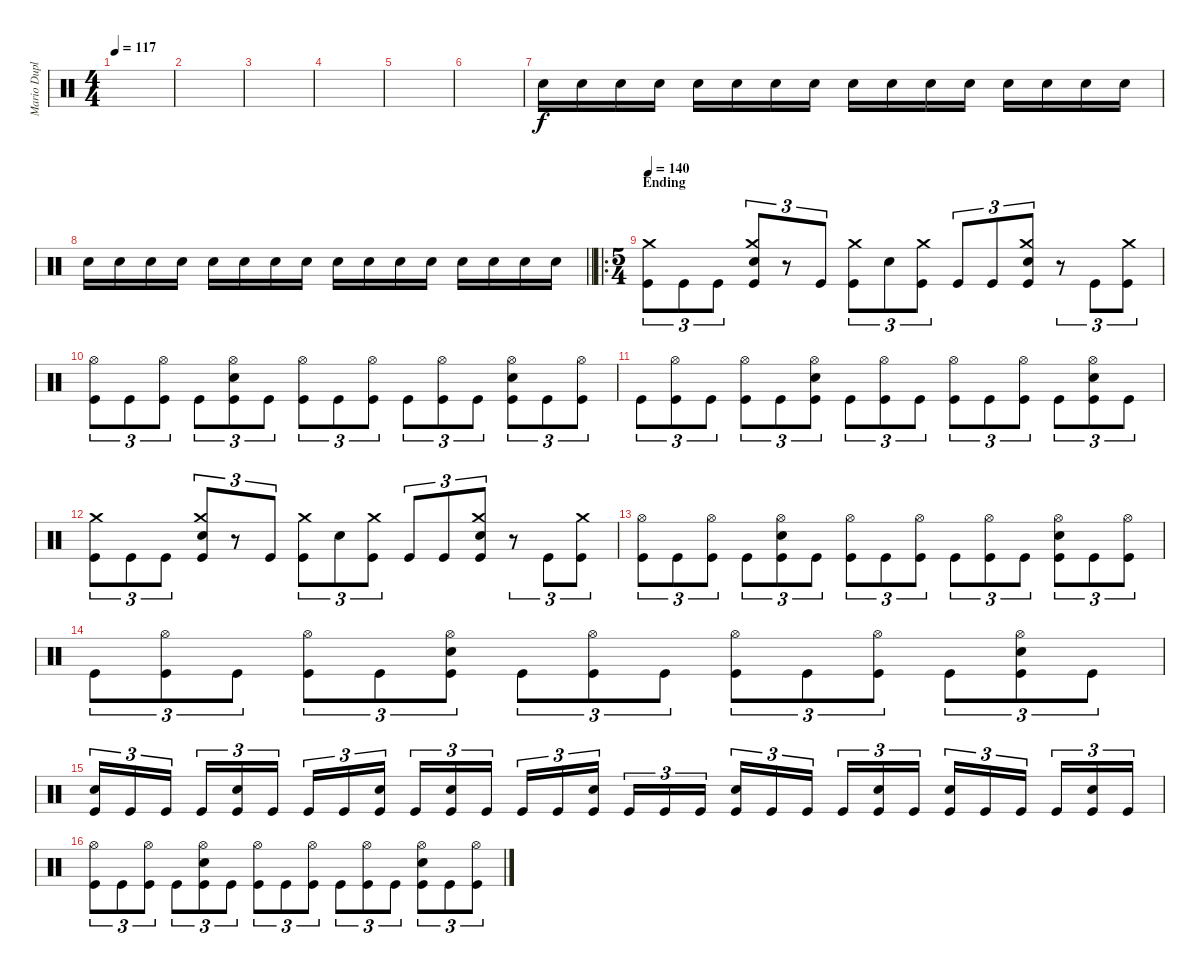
\track ("Mario Duplantier" "Mario Dupl") {instrument percussion}
\staff {score}
\articulation defaults
\ts (4 4)
\tempo 117
\clef neutral
\ks c
|
|
|
|
|
|
"Electric Snare (hit)".16{volume 16} "Electric Snare (hit)".16 "Electric Snare (hit)".16 "Electric Snare (hit)".16 "Electric Snare (hit)".16 "Electric Snare (hit)".16 "Electric Snare (hit)".16 "Electric Snare (hit)".16 "Electric Snare (hit)".16 "Electric Snare (hit)".16 "Electric Snare (hit)".16 "Electric Snare (hit)".16 "Electric Snare (hit)".16 "Electric Snare (hit)".16 "Electric Snare (hit)".16 "Electric Snare (hit)".16 |
\barLineRight lightlight "Electric Snare (hit)".16 "Electric Snare (hit)".16 "Electric Snare (hit)".16 "Electric Snare (hit)".16 "Electric Snare (hit)".16 "Electric Snare (hit)".16 "Electric Snare (hit)".16 "Electric Snare (hit)".16 "Electric Snare (hit)".16 "Electric Snare (hit)".16 "Electric Snare (hit)".16 "Electric Snare (hit)".16 "Electric Snare (hit)".16 "Electric Snare (hit)".16 "Electric Snare (hit)".16 "Electric Snare (hit)".16
|
\ro
\ts (5 4)
\section ("" "Ending")
\tempo 140
("Crash medium (hit)" "Kick (hit)").8{tu (3 2)} "Kick (hit)".8{tu (3 2)} "Kick (hit)".8{tu (3 2)} ("Crash medium (hit)" "Electric Snare (hit)" "Kick (hit)").8{tu (3 2)} r.8{tu (3 2)} "Kick (hit)".8{tu (3 2)} ("Crash medium (hit)" "Kick (hit)").8{tu (3 2)} "Electric Snare (hit)".8{tu (3 2)} ("Crash medium (hit)" "Kick (hit)").8{tu (3 2)} "Kick (hit)".8{tu (3 2)} "Kick (hit)".8{tu (3 2)} ("Crash medium (hit)" "Electric Snare (hit)" "Kick (hit)").8{tu (3 2)} r.8{tu (3 2)} "Kick (hit)".8{tu (3 2)} ("Crash medium (hit)" "Kick (hit)").8{tu (3 2)} |
("Hi-Hat (open)" "Kick (hit)").8{tu (3 2)} "Kick (hit)".8{tu (3 2)} ("Hi-Hat (open)" "Kick (hit)").8{tu (3 2)} "Kick (hit)".8{tu (3 2)} ("Hi-Hat (open)" "Electric Snare (hit)" "Kick (hit)").8{tu (3 2)} "Kick (hit)".8{tu (3 2)} ("Hi-Hat (open)" "Kick (hit)").8{tu (3 2)} "Kick (hit)".8{tu (3 2)} ("Hi-Hat (open)" "Kick (hit)").8{tu (3 2)} "Kick (hit)".8{tu (3 2)} ("Hi-Hat (open)" "Kick (hit)").8{tu (3 2)} "Kick (hit)".8{tu (3 2)} ("Hi-Hat (open)" "Electric Snare (hit)" "Kick (hit)").8{tu (3 2)} "Kick (hit)".8{tu (3 2)} ("Hi-Hat (open)" "Kick (hit)").8{tu (3 2)} |
"Kick (hit)".8{tu (3 2)} ("Hi-Hat (open)" "Kick (hit)").8{tu (3 2)} "Kick (hit)".8{tu (3 2)} ("Hi-Hat (open)" "Kick (hit)").8{tu (3 2)} "Kick (hit)".8{tu (3 2)} ("Hi-Hat (open)" "Electric Snare (hit)" "Kick (hit)").8{tu (3 2)} "Kick (hit)".8{tu (3 2)} ("Hi-Hat (open)" "Kick (hit)").8{tu (3 2)} "Kick (hit)".8{tu (3 2)} ("Hi-Hat (open)" "Kick (hit)").8{tu (3 2)} "Kick (hit)".8{tu (3 2)} ("Hi-Hat (open)" "Kick (hit)").8{tu (3 2)} "Kick (hit)".8{tu (3 2)} ("Hi-Hat (open)" "Electric Snare (hit)" "Kick (hit)").8{tu (3 2)} "Kick (hit)".8{tu (3 2)} |
("Crash medium (hit)" "Kick (hit)").8{tu (3 2)} "Kick (hit)".8{tu (3 2)} "Kick (hit)".8{tu (3 2)} ("Crash medium (hit)" "Electric Snare (hit)" "Kick (hit)").8{tu (3 2)} r.8{tu (3 2)} "Kick (hit)".8{tu (3 2)} ("Crash medium (hit)" "Kick (hit)").8{tu (3 2)} "Electric Snare (hit)".8{tu (3 2)} ("Crash medium (hit)" "Kick (hit)").8{tu (3 2)} "Kick (hit)".8{tu (3 2)} "Kick (hit)".8{tu (3 2)} ("Crash medium (hit)" "Electric Snare (hit)" "Kick (hit)").8{tu (3 2)} r.8{tu (3 2)} "Kick (hit)".8{tu (3 2)} ("Crash medium (hit)" "Kick (hit)").8{tu (3 2)} |
("Hi-Hat (open)" "Kick (hit)").8{tu (3 2)} "Kick (hit)".8{tu (3 2)} ("Hi-Hat (open)" "Kick (hit)").8{tu (3 2)} "Kick (hit)".8{tu (3 2)} ("Hi-Hat (open)" "Electric Snare (hit)" "Kick (hit)").8{tu (3 2)} "Kick (hit)".8{tu (3 2)} ("Hi-Hat (open)" "Kick (hit)").8{tu (3 2)} "Kick (hit)".8{tu (3 2)} ("Hi-Hat (open)" "Kick (hit)").8{tu (3 2)} "Kick (hit)".8{tu (3 2)} ("Hi-Hat (open)" "Kick (hit)").8{tu (3 2)} "Kick (hit)".8{tu (3 2)} ("Hi-Hat (open)" "Electric Snare (hit)" "Kick (hit)").8{tu (3 2)} "Kick (hit)".8{tu (3 2)} ("Hi-Hat (open)" "Kick (hit)").8{tu (3 2)} |
"Kick (hit)".8{tu (3 2)} ("Hi-Hat (open)" "Kick (hit)").8{tu (3 2)} "Kick (hit)".8{tu (3 2)} ("Hi-Hat (open)" "Kick (hit)").8{tu (3 2)} "Kick (hit)".8{tu (3 2)} ("Hi-Hat (open)" "Electric Snare (hit)" "Kick (hit)").8{tu (3 2)} "Kick (hit)".8{tu (3 2)} ("Hi-Hat (open)" "Kick (hit)").8{tu (3 2)} "Kick (hit)".8{tu (3 2)} ("Hi-Hat (open)" "Kick (hit)").8{tu (3 2)} "Kick (hit)".8{tu (3 2)} ("Hi-Hat (open)" "Kick (hit)").8{tu (3 2)} "Kick (hit)".8{tu (3 2)} ("Hi-Hat (open)" "Electric Snare (hit)" "Kick (hit)").8{tu (3 2)} "Kick (hit)".8{tu (3 2)} |
("Electric Snare (hit)" "Kick (hit)").16{tu (3 2)} "Kick (hit)".16{tu (3 2)} "Kick (hit)".16{tu (3 2) beam splitsecondary} "Kick (hit)".16{tu (3 2)} ("Electric Snare (hit)" "Kick (hit)").16{tu (3 2)} "Kick (hit)".16{tu (3 2)} "Kick (hit)".16{tu (3 2)} "Kick (hit)".16{tu (3 2)} ("Electric Snare (hit)" "Kick (hit)").16{tu (3 2) beam splitsecondary} "Kick (hit)".16{tu (3 2)} ("Electric Snare (hit)" "Kick (hit)").16{tu (3 2)} "Kick (hit)".16{tu (3 2)} "Kick (hit)".16{tu (3 2)} "Kick (hit)".16{tu (3 2)} ("Electric Snare (hit)" "Kick (hit)").16{tu (3 2) beam splitsecondary} "Kick (hit)".16{tu (3 2)} "Kick (hit)".16{tu (3 2)} "Kick (hit)".16{tu (3 2)} ("Electric Snare (hit)" "Kick (hit)").16{tu (3 2)} "Kick (hit)".16{tu (3 2)} "Kick (hit)".16{tu (3 2) beam splitsecondary} "Kick (hit)".16{tu (3 2)} ("Electric Snare (hit)" "Kick (hit)").16{tu (3 2)} "Kick (hit)".16{tu (3 2)} ("Electric Snare (hit)" "Kick (hit)").16{tu (3 2)} "Kick (hit)".16{tu (3 2)} "Kick (hit)".16{tu (3 2) beam splitsecondary} "Kick (hit)".16{tu (3 2)} ("Electric Snare (hit)" "Kick (hit)").16{tu (3 2)} "Kick (hit)".16{tu (3 2)} |
("Hi-Hat (open)" "Kick (hit)").8{tu (3 2)} "Kick (hit)".8{tu (3 2)} ("Hi-Hat (open)" "Kick (hit)").8{tu (3 2)} "Kick (hit)".8{tu (3 2)} ("Hi-Hat (open)" "Electric Snare (hit)" "Kick (hit)").8{tu (3 2)} "Kick (hit)".8{tu (3 2)} ("Hi-Hat (open)" "Kick (hit)").8{tu (3 2)} "Kick (hit)".8{tu (3 2)} ("Hi-Hat (open)" "Kick (hit)").8{tu (3 2)} "Kick (hit)".8{tu (3 2)} ("Hi-Hat (open)" "Kick (hit)").8{tu (3 2)} "Kick (hit)".8{tu (3 2)} ("Hi-Hat (open)" "Electric Snare (hit)" "Kick (hit)").8{tu (3 2)} "Kick (hit)".8{tu (3 2)} ("Hi-Hat (open)" "Kick (hit)").8{tu (3 2)}
